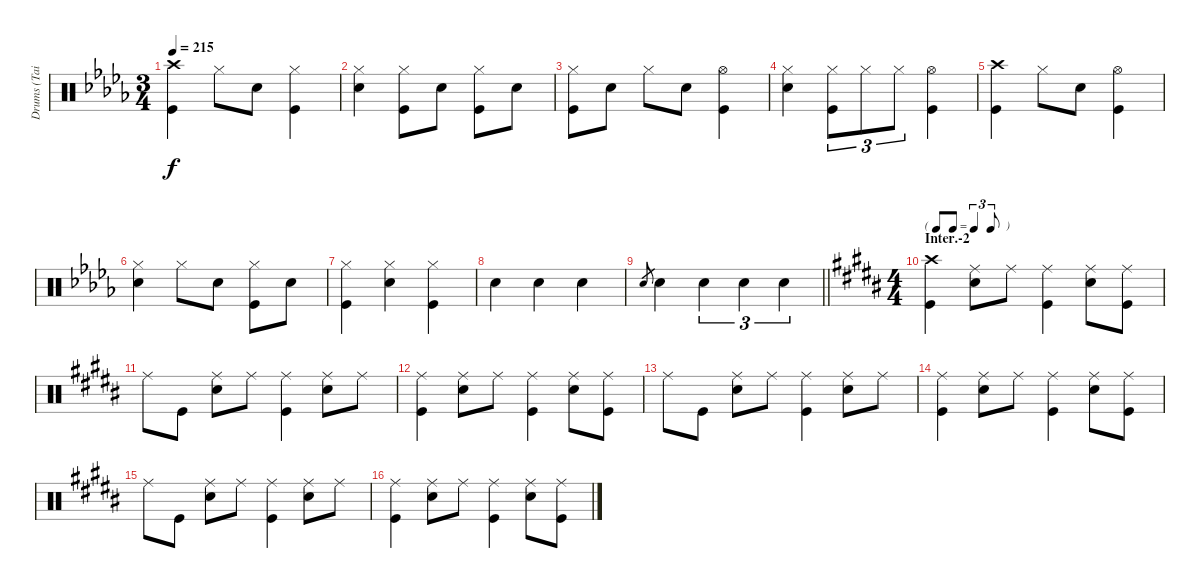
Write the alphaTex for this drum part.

\track ("Drums (Tainaka Ritsu)" "Drums (Tai") {instrument percussion}
\staff {score}
\articulation defaults
\ts (3 4)
\tempo 215
\clef neutral
\ks db
("Crash high (hit)" "Kick (hit)").4{dy f} "Hi-Hat (closed)".8 "Snare (hit) 2".8 ("Hi-Hat (closed)" "Kick (hit)").4 |
("Hi-Hat (closed)" "Snare (hit) 2").4 ("Hi-Hat (closed)" "Kick (hit)").8 "Snare (hit) 2".8 ("Hi-Hat (closed)" "Kick (hit)").8 "Snare (hit) 2".8 |
("Hi-Hat (closed)" "Kick (hit)").8 "Snare (hit) 2".8 "Hi-Hat (closed)".8 "Snare (hit) 2".8 ("Hi-Hat (open)" "Kick (hit)").4 |
("Hi-Hat (closed)" "Snare (hit) 2").4 ("Hi-Hat (closed)" "Kick (hit)").8{tu (3 2)} "Hi-Hat (closed)".8{tu (3 2)} "Hi-Hat (closed)".8{tu (3 2)} ("Hi-Hat (open)" "Kick (hit)").4 |
("Crash high (hit)" "Kick (hit)").4 "Hi-Hat (closed)".8 "Snare (hit) 2".8 ("Hi-Hat (open)" "Kick (hit)").4 |
("Hi-Hat (closed)" "Snare (hit) 2").4 "Hi-Hat (closed)".8 "Snare (hit) 2".8 ("Hi-Hat (closed)" "Kick (hit)").8 "Snare (hit) 2".8 |
("Hi-Hat (closed)" "Kick (hit)").4 ("Hi-Hat (closed)" "Snare (hit) 2").4 ("Hi-Hat (closed)" "Kick (hit)").4 |
"Snare (hit) 2".4 "Snare (hit) 2".4 "Snare (hit) 2".4 |
\barLineRight lightlight "Snare (hit) 2".8{gr} "Snare (hit) 2".4 "Snare (hit) 2".4{tu (3 2)} "Snare (hit) 2".4{tu (3 2)} "Snare (hit) 2".4{tu (3 2)}
|
\ts (4 4)
\tf triplet8th
\section ("" "Inter.-2")
\ks b
("Crash high (hit)" "Kick (hit)").4 ("Ride (middle)" "Snare (hit) 2").8 "Ride (middle)".8 ("Ride (middle)" "Kick (hit)").4 ("Ride (middle)" "Snare (hit) 2").8 ("Ride (middle)" "Kick (hit)").8 |
"Ride (middle)".8 "Kick (hit)".8 ("Ride (middle)" "Snare (hit) 2").8 "Ride (middle)".8 ("Ride (middle)" "Kick (hit)").4 ("Ride (middle)" "Snare (hit) 2").8 "Ride (middle)".8 |
("Ride (middle)" "Kick (hit)").4 ("Ride (middle)" "Snare (hit) 2").8 "Ride (middle)".8 ("Ride (middle)" "Kick (hit)").4 ("Ride (middle)" "Snare (hit) 2").8 ("Ride (middle)" "Kick (hit)").8 |
"Ride (middle)".8 "Kick (hit)".8 ("Ride (middle)" "Snare (hit) 2").8 "Ride (middle)".8 ("Ride (middle)" "Kick (hit)").4 ("Ride (middle)" "Snare (hit) 2").8 "Ride (middle)".8 |
("Ride (middle)" "Kick (hit)").4 ("Ride (middle)" "Snare (hit) 2").8 "Ride (middle)".8 ("Ride (middle)" "Kick (hit)").4 ("Ride (middle)" "Snare (hit) 2").8 ("Ride (middle)" "Kick (hit)").8 |
"Ride (middle)".8 "Kick (hit)".8 ("Ride (middle)" "Snare (hit) 2").8 "Ride (middle)".8 ("Ride (middle)" "Kick (hit)").4 ("Ride (middle)" "Snare (hit) 2").8 "Ride (middle)".8 |
("Ride (middle)" "Kick (hit)").4 ("Ride (middle)" "Snare (hit) 2").8 "Ride (middle)".8 ("Ride (middle)" "Kick (hit)").4 ("Ride (middle)" "Snare (hit) 2").8 ("Ride (middle)" "Kick (hit)").8
